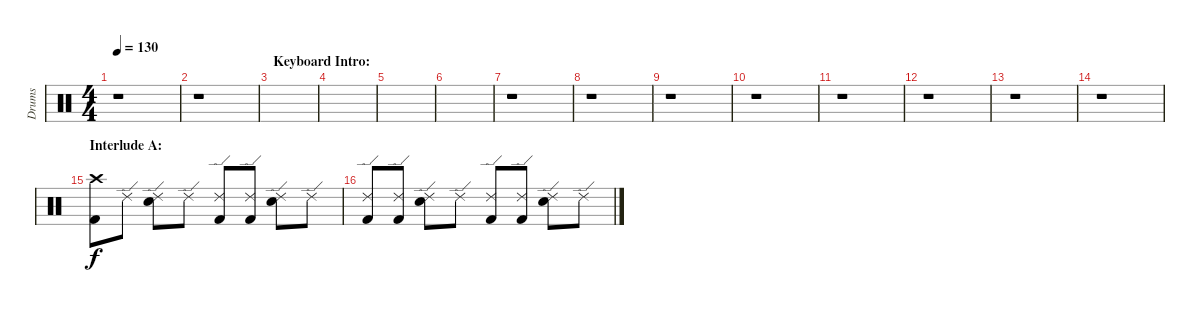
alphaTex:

\track ("Drums" "Drums") {instrument percussion}
\staff {score}
\articulation defaults
\ts (4 4)
\tempo 130
\clef neutral
\ks c
r.1{dy f} |
r.1 |
\section ("" "Keyboard Intro:")
|
|
|
|
r.1 |
r.1 |
r.1 |
r.1 |
r.1 |
r.1 |
r.1 |
r.1 |
\section ("" "Interlude A:")
("Crash high (hit)" "Kick (hit) 2").8 "Ride (edge) 2".8 ("Ride (edge) 2" "Electric Snare (hit)").8 "Ride (edge) 2".8 ("Ride (edge) 2" "Kick (hit) 2").8 ("Ride (edge) 2" "Kick (hit) 2").8 ("Ride (edge) 2" "Electric Snare (hit)").8 "Ride (edge) 2".8 |
("Ride (edge) 2" "Kick (hit) 2").8 ("Ride (edge) 2" "Kick (hit) 2").8 ("Ride (edge) 2" "Electric Snare (hit)").8 "Ride (edge) 2".8 ("Ride (edge) 2" "Kick (hit) 2").8 ("Ride (edge) 2" "Kick (hit) 2").8 ("Ride (edge) 2" "Electric Snare (hit)").8 "Ride (edge) 2".8
